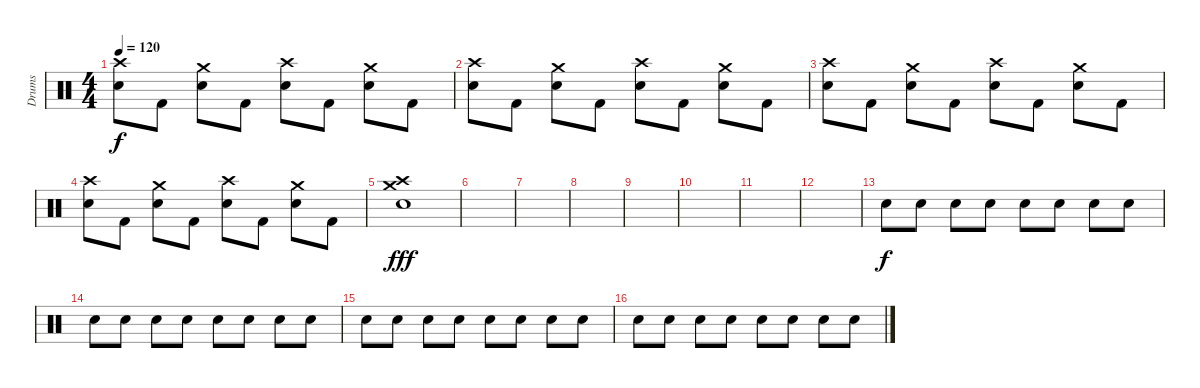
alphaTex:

\track ("Drums" "Drums") {instrument percussion}
\staff {score}
\articulation defaults
\ts (4 4)
\tempo 120
\clef neutral
\ks c
("Crash high (hit)" "Electric Snare (hit)").8{dy f} "Kick (hit) 2".8 ("Crash medium (hit)" "Electric Snare (hit)").8 "Kick (hit) 2".8 ("Crash high (hit)" "Electric Snare (hit)").8 "Kick (hit) 2".8 ("Crash medium (hit)" "Electric Snare (hit)").8 "Kick (hit) 2".8 |
("Crash high (hit)" "Electric Snare (hit)").8 "Kick (hit) 2".8 ("Crash medium (hit)" "Electric Snare (hit)").8 "Kick (hit) 2".8 ("Crash high (hit)" "Electric Snare (hit)").8 "Kick (hit) 2".8 ("Crash medium (hit)" "Electric Snare (hit)").8 "Kick (hit) 2".8 |
("Crash high (hit)" "Electric Snare (hit)").8 "Kick (hit) 2".8 ("Crash medium (hit)" "Electric Snare (hit)").8 "Kick (hit) 2".8 ("Crash high (hit)" "Electric Snare (hit)").8 "Kick (hit) 2".8 ("Crash medium (hit)" "Electric Snare (hit)").8 "Kick (hit) 2".8 |
("Crash high (hit)" "Electric Snare (hit)").8 "Kick (hit) 2".8 ("Crash medium (hit)" "Electric Snare (hit)").8 "Kick (hit) 2".8 ("Crash high (hit)" "Electric Snare (hit)").8 "Kick (hit) 2".8 ("Crash medium (hit)" "Electric Snare (hit)").8 "Kick (hit) 2".8 |
("Crash medium (hit)" "Crash high (hit)" "Electric Snare (hit)").1{dy fff} |
|
|
|
|
|
|
|
"Electric Snare (hit)".8{dy f volume 0} "Electric Snare (hit)".8{volume 15} "Electric Snare (hit)".8 "Electric Snare (hit)".8 "Electric Snare (hit)".8 "Electric Snare (hit)".8 "Electric Snare (hit)".8 "Electric Snare (hit)".8 |
"Electric Snare (hit)".8 "Electric Snare (hit)".8 "Electric Snare (hit)".8 "Electric Snare (hit)".8 "Electric Snare (hit)".8 "Electric Snare (hit)".8 "Electric Snare (hit)".8 "Electric Snare (hit)".8 |
"Electric Snare (hit)".8 "Electric Snare (hit)".8 "Electric Snare (hit)".8 "Electric Snare (hit)".8 "Electric Snare (hit)".8 "Electric Snare (hit)".8 "Electric Snare (hit)".8 "Electric Snare (hit)".8 |
"Electric Snare (hit)".8 "Electric Snare (hit)".8 "Electric Snare (hit)".8 "Electric Snare (hit)".8 "Electric Snare (hit)".8 "Electric Snare (hit)".8 "Electric Snare (hit)".8 "Electric Snare (hit)".8
